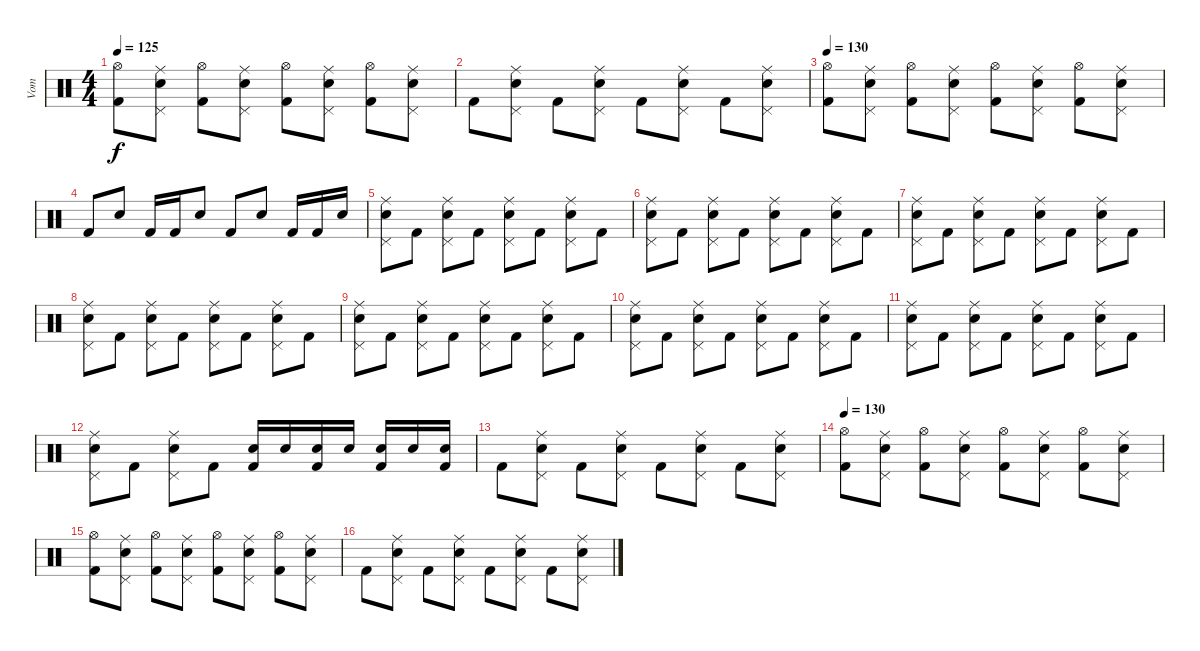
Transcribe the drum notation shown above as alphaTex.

\track ("Vom" "Vom") {instrument percussion}
\staff {score}
\articulation defaults
\ts (4 4)
\tempo 125
\clef neutral
\ks c
("Kick (hit) 2" "Hi-Hat (open)").8{dy f} ("Snare (hit) 2" "Pedal Hi-Hat (hit)" "Ride (middle)").8 ("Kick (hit) 2" "Hi-Hat (open)").8 ("Snare (hit) 2" "Pedal Hi-Hat (hit)" "Ride (middle)").8 ("Kick (hit) 2" "Hi-Hat (open)").8 ("Snare (hit) 2" "Pedal Hi-Hat (hit)" "Ride (middle)").8 ("Kick (hit) 2" "Hi-Hat (open)").8 ("Snare (hit) 2" "Pedal Hi-Hat (hit)" "Ride (middle)").8 |
"Kick (hit) 2".8 ("Snare (hit) 2" "Pedal Hi-Hat (hit)" "Ride (middle)").8 "Kick (hit) 2".8 ("Snare (hit) 2" "Pedal Hi-Hat (hit)" "Ride (middle)").8 "Kick (hit) 2".8 ("Snare (hit) 2" "Pedal Hi-Hat (hit)" "Ride (middle)").8 "Kick (hit) 2".8 ("Snare (hit) 2" "Pedal Hi-Hat (hit)" "Ride (middle)").8 |
\tempo 130
("Kick (hit) 2" "Hi-Hat (open)").8 ("Snare (hit) 2" "Pedal Hi-Hat (hit)" "Ride (middle)").8 ("Kick (hit) 2" "Hi-Hat (open)").8 ("Snare (hit) 2" "Pedal Hi-Hat (hit)" "Ride (middle)").8 ("Kick (hit) 2" "Hi-Hat (open)").8 ("Snare (hit) 2" "Pedal Hi-Hat (hit)" "Ride (middle)").8 ("Kick (hit) 2" "Hi-Hat (open)").8 ("Snare (hit) 2" "Pedal Hi-Hat (hit)" "Ride (middle)").8 |
"Kick (hit) 2".8 "Snare (hit) 2".8 "Kick (hit) 2".16 "Kick (hit) 2".16 "Snare (hit) 2".8 "Kick (hit) 2".8 "Snare (hit) 2".8 "Kick (hit) 2".16 "Kick (hit) 2".16 "Snare (hit) 2".16 |
("Snare (hit) 2" "Ride (middle)" "Pedal Hi-Hat (hit)").8 "Kick (hit) 2".8 ("Snare (hit) 2" "Ride (middle)" "Pedal Hi-Hat (hit)").8 "Kick (hit) 2".8 ("Snare (hit) 2" "Ride (middle)" "Pedal Hi-Hat (hit)").8 "Kick (hit) 2".8 ("Snare (hit) 2" "Ride (middle)" "Pedal Hi-Hat (hit)").8 "Kick (hit) 2".8 |
("Snare (hit) 2" "Ride (middle)" "Pedal Hi-Hat (hit)").8 "Kick (hit) 2".8 ("Snare (hit) 2" "Ride (middle)" "Pedal Hi-Hat (hit)").8 "Kick (hit) 2".8 ("Snare (hit) 2" "Ride (middle)" "Pedal Hi-Hat (hit)").8 "Kick (hit) 2".8 ("Snare (hit) 2" "Ride (middle)" "Pedal Hi-Hat (hit)").8 "Kick (hit) 2".8 |
("Snare (hit) 2" "Ride (middle)" "Pedal Hi-Hat (hit)").8 "Kick (hit) 2".8 ("Snare (hit) 2" "Ride (middle)" "Pedal Hi-Hat (hit)").8 "Kick (hit) 2".8 ("Snare (hit) 2" "Ride (middle)" "Pedal Hi-Hat (hit)").8 "Kick (hit) 2".8 ("Snare (hit) 2" "Ride (middle)" "Pedal Hi-Hat (hit)").8 "Kick (hit) 2".8 |
("Snare (hit) 2" "Ride (middle)" "Pedal Hi-Hat (hit)").8 "Kick (hit) 2".8 ("Snare (hit) 2" "Ride (middle)" "Pedal Hi-Hat (hit)").8 "Kick (hit) 2".8 ("Snare (hit) 2" "Ride (middle)" "Pedal Hi-Hat (hit)").8 "Kick (hit) 2".8 ("Snare (hit) 2" "Ride (middle)" "Pedal Hi-Hat (hit)").8 "Kick (hit) 2".8 |
("Snare (hit) 2" "Ride (middle)" "Pedal Hi-Hat (hit)").8 "Kick (hit) 2".8 ("Snare (hit) 2" "Ride (middle)" "Pedal Hi-Hat (hit)").8 "Kick (hit) 2".8 ("Snare (hit) 2" "Ride (middle)" "Pedal Hi-Hat (hit)").8 "Kick (hit) 2".8 ("Snare (hit) 2" "Ride (middle)" "Pedal Hi-Hat (hit)").8 "Kick (hit) 2".8 |
("Snare (hit) 2" "Ride (middle)" "Pedal Hi-Hat (hit)").8 "Kick (hit) 2".8 ("Snare (hit) 2" "Ride (middle)" "Pedal Hi-Hat (hit)").8 "Kick (hit) 2".8 ("Snare (hit) 2" "Ride (middle)" "Pedal Hi-Hat (hit)").8 "Kick (hit) 2".8 ("Snare (hit) 2" "Ride (middle)" "Pedal Hi-Hat (hit)").8 "Kick (hit) 2".8 |
("Snare (hit) 2" "Ride (middle)" "Pedal Hi-Hat (hit)").8 "Kick (hit) 2".8 ("Snare (hit) 2" "Ride (middle)" "Pedal Hi-Hat (hit)").8 "Kick (hit) 2".8 ("Snare (hit) 2" "Ride (middle)" "Pedal Hi-Hat (hit)").8 "Kick (hit) 2".8 ("Snare (hit) 2" "Ride (middle)" "Pedal Hi-Hat (hit)").8 "Kick (hit) 2".8 |
("Snare (hit) 2" "Ride (middle)" "Pedal Hi-Hat (hit)").8 "Kick (hit) 2".8 ("Snare (hit) 2" "Ride (middle)" "Pedal Hi-Hat (hit)").8 "Kick (hit) 2".8 ("Snare (hit) 2" "Kick (hit) 2").16 "Snare (hit) 2".16 ("Snare (hit) 2" "Kick (hit) 2").16 "Snare (hit) 2".16 ("Snare (hit) 2" "Kick (hit) 2").16 "Snare (hit) 2".16 ("Snare (hit) 2" "Kick (hit) 2").16 |
"Kick (hit) 2".8 ("Snare (hit) 2" "Pedal Hi-Hat (hit)" "Ride (middle)").8 "Kick (hit) 2".8 ("Snare (hit) 2" "Pedal Hi-Hat (hit)" "Ride (middle)").8 "Kick (hit) 2".8 ("Snare (hit) 2" "Pedal Hi-Hat (hit)" "Ride (middle)").8 "Kick (hit) 2".8 ("Snare (hit) 2" "Pedal Hi-Hat (hit)" "Ride (middle)").8 |
\tempo 130
("Kick (hit) 2" "Hi-Hat (open)").8 ("Snare (hit) 2" "Pedal Hi-Hat (hit)" "Ride (middle)").8 ("Kick (hit) 2" "Hi-Hat (open)").8 ("Snare (hit) 2" "Pedal Hi-Hat (hit)" "Ride (middle)").8 ("Kick (hit) 2" "Hi-Hat (open)").8 ("Snare (hit) 2" "Pedal Hi-Hat (hit)" "Ride (middle)").8 ("Kick (hit) 2" "Hi-Hat (open)").8 ("Snare (hit) 2" "Pedal Hi-Hat (hit)" "Ride (middle)").8 |
("Kick (hit) 2" "Hi-Hat (open)").8 ("Snare (hit) 2" "Pedal Hi-Hat (hit)" "Ride (middle)").8 ("Kick (hit) 2" "Hi-Hat (open)").8 ("Snare (hit) 2" "Pedal Hi-Hat (hit)" "Ride (middle)").8 ("Kick (hit) 2" "Hi-Hat (open)").8 ("Snare (hit) 2" "Pedal Hi-Hat (hit)" "Ride (middle)").8 ("Kick (hit) 2" "Hi-Hat (open)").8 ("Snare (hit) 2" "Pedal Hi-Hat (hit)" "Ride (middle)").8 |
"Kick (hit) 2".8 ("Snare (hit) 2" "Pedal Hi-Hat (hit)" "Ride (middle)").8 "Kick (hit) 2".8 ("Snare (hit) 2" "Pedal Hi-Hat (hit)" "Ride (middle)").8 "Kick (hit) 2".8 ("Snare (hit) 2" "Pedal Hi-Hat (hit)" "Ride (middle)").8 "Kick (hit) 2".8 ("Snare (hit) 2" "Pedal Hi-Hat (hit)" "Ride (middle)").8
